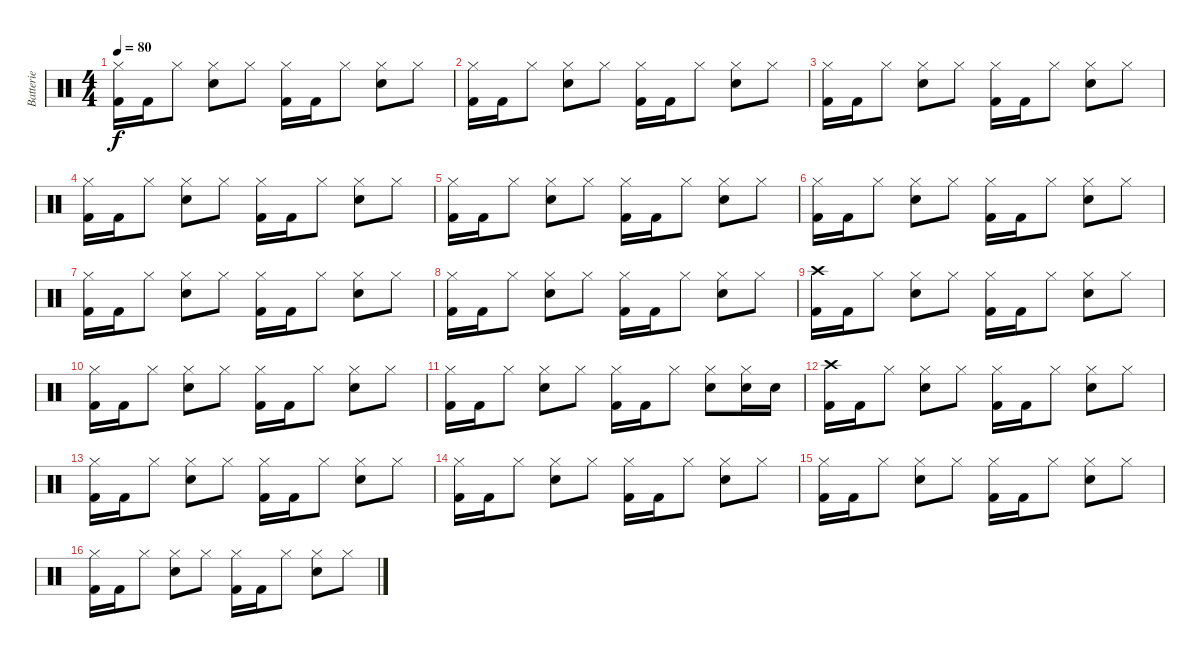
\track ("Batterie" "Batterie") {instrument percussion}
\staff {score}
\articulation defaults
\ts (4 4)
\tempo 80
\clef neutral
\ks c
("Kick (hit) 2" "Hi-Hat (closed)").16{dy f} "Kick (hit) 2".16 "Hi-Hat (closed)".8 ("Snare (hit) 2" "Hi-Hat (closed)").8 "Hi-Hat (closed)".8 ("Kick (hit) 2" "Hi-Hat (closed)").16 "Kick (hit) 2".16 "Hi-Hat (closed)".8 ("Snare (hit) 2" "Hi-Hat (closed)").8 "Hi-Hat (closed)".8 |
("Kick (hit) 2" "Hi-Hat (closed)").16 "Kick (hit) 2".16 "Hi-Hat (closed)".8 ("Snare (hit) 2" "Hi-Hat (closed)").8 "Hi-Hat (closed)".8 ("Kick (hit) 2" "Hi-Hat (closed)").16 "Kick (hit) 2".16 "Hi-Hat (closed)".8 ("Snare (hit) 2" "Hi-Hat (closed)").8 "Hi-Hat (closed)".8 |
("Kick (hit) 2" "Hi-Hat (closed)").16 "Kick (hit) 2".16 "Hi-Hat (closed)".8 ("Snare (hit) 2" "Hi-Hat (closed)").8 "Hi-Hat (closed)".8 ("Kick (hit) 2" "Hi-Hat (closed)").16 "Kick (hit) 2".16 "Hi-Hat (closed)".8 ("Snare (hit) 2" "Hi-Hat (closed)").8 "Hi-Hat (closed)".8 |
("Kick (hit) 2" "Hi-Hat (closed)").16 "Kick (hit) 2".16 "Hi-Hat (closed)".8 ("Snare (hit) 2" "Hi-Hat (closed)").8 "Hi-Hat (closed)".8 ("Kick (hit) 2" "Hi-Hat (closed)").16 "Kick (hit) 2".16 "Hi-Hat (closed)".8 ("Snare (hit) 2" "Hi-Hat (closed)").8 "Hi-Hat (closed)".8 |
("Kick (hit) 2" "Hi-Hat (closed)").16 "Kick (hit) 2".16 "Hi-Hat (closed)".8 ("Snare (hit) 2" "Hi-Hat (closed)").8 "Hi-Hat (closed)".8 ("Kick (hit) 2" "Hi-Hat (closed)").16 "Kick (hit) 2".16 "Hi-Hat (closed)".8 ("Snare (hit) 2" "Hi-Hat (closed)").8 "Hi-Hat (closed)".8 |
("Kick (hit) 2" "Hi-Hat (closed)").16 "Kick (hit) 2".16 "Hi-Hat (closed)".8 ("Snare (hit) 2" "Hi-Hat (closed)").8 "Hi-Hat (closed)".8 ("Kick (hit) 2" "Hi-Hat (closed)").16 "Kick (hit) 2".16 "Hi-Hat (closed)".8 ("Snare (hit) 2" "Hi-Hat (closed)").8 "Hi-Hat (closed)".8 |
("Kick (hit) 2" "Hi-Hat (closed)").16 "Kick (hit) 2".16 "Hi-Hat (closed)".8 ("Snare (hit) 2" "Hi-Hat (closed)").8 "Hi-Hat (closed)".8 ("Kick (hit) 2" "Hi-Hat (closed)").16 "Kick (hit) 2".16 "Hi-Hat (closed)".8 ("Snare (hit) 2" "Hi-Hat (closed)").8 "Hi-Hat (closed)".8 |
("Kick (hit) 2" "Hi-Hat (closed)").16 "Kick (hit) 2".16 "Hi-Hat (closed)".8 ("Snare (hit) 2" "Hi-Hat (closed)").8 "Hi-Hat (closed)".8 ("Kick (hit) 2" "Hi-Hat (closed)").16 "Kick (hit) 2".16 "Hi-Hat (closed)".8 ("Snare (hit) 2" "Hi-Hat (closed)").8 "Hi-Hat (closed)".8 |
("Kick (hit) 2" "Crash high (hit)").16 "Kick (hit) 2".16 "Hi-Hat (closed)".8 ("Snare (hit) 2" "Hi-Hat (closed)").8 "Hi-Hat (closed)".8 ("Kick (hit) 2" "Hi-Hat (closed)").16 "Kick (hit) 2".16 "Hi-Hat (closed)".8 ("Snare (hit) 2" "Hi-Hat (closed)").8 "Hi-Hat (closed)".8 |
("Kick (hit) 2" "Hi-Hat (closed)").16 "Kick (hit) 2".16 "Hi-Hat (closed)".8 ("Snare (hit) 2" "Hi-Hat (closed)").8 "Hi-Hat (closed)".8 ("Kick (hit) 2" "Hi-Hat (closed)").16 "Kick (hit) 2".16 "Hi-Hat (closed)".8 ("Snare (hit) 2" "Hi-Hat (closed)").8 "Hi-Hat (closed)".8 |
("Kick (hit) 2" "Hi-Hat (closed)").16 "Kick (hit) 2".16 "Hi-Hat (closed)".8 ("Snare (hit) 2" "Hi-Hat (closed)").8 "Hi-Hat (closed)".8 ("Kick (hit) 2" "Hi-Hat (closed)").16 "Kick (hit) 2".16 "Hi-Hat (closed)".8 ("Snare (hit) 2" "Hi-Hat (closed)").8 ("Snare (hit) 2" "Hi-Hat (closed)").16 "Snare (hit) 2".16 |
("Kick (hit) 2" "Crash high (hit)").16 "Kick (hit) 2".16 "Hi-Hat (closed)".8 ("Snare (hit) 2" "Hi-Hat (closed)").8 "Hi-Hat (closed)".8 ("Kick (hit) 2" "Hi-Hat (closed)").16 "Kick (hit) 2".16 "Hi-Hat (closed)".8 ("Snare (hit) 2" "Hi-Hat (closed)").8 "Hi-Hat (closed)".8 |
("Kick (hit) 2" "Hi-Hat (closed)").16 "Kick (hit) 2".16 "Hi-Hat (closed)".8 ("Snare (hit) 2" "Hi-Hat (closed)").8 "Hi-Hat (closed)".8 ("Kick (hit) 2" "Hi-Hat (closed)").16 "Kick (hit) 2".16 "Hi-Hat (closed)".8 ("Snare (hit) 2" "Hi-Hat (closed)").8 "Hi-Hat (closed)".8 |
("Kick (hit) 2" "Hi-Hat (closed)").16 "Kick (hit) 2".16 "Hi-Hat (closed)".8 ("Snare (hit) 2" "Hi-Hat (closed)").8 "Hi-Hat (closed)".8 ("Kick (hit) 2" "Hi-Hat (closed)").16 "Kick (hit) 2".16 "Hi-Hat (closed)".8 ("Snare (hit) 2" "Hi-Hat (closed)").8 "Hi-Hat (closed)".8 |
("Kick (hit) 2" "Hi-Hat (closed)").16 "Kick (hit) 2".16 "Hi-Hat (closed)".8 ("Snare (hit) 2" "Hi-Hat (closed)").8 "Hi-Hat (closed)".8 ("Kick (hit) 2" "Hi-Hat (closed)").16 "Kick (hit) 2".16 "Hi-Hat (closed)".8 ("Snare (hit) 2" "Hi-Hat (closed)").8 "Hi-Hat (closed)".8 |
("Kick (hit) 2" "Hi-Hat (closed)").16 "Kick (hit) 2".16 "Hi-Hat (closed)".8 ("Snare (hit) 2" "Hi-Hat (closed)").8 "Hi-Hat (closed)".8 ("Kick (hit) 2" "Hi-Hat (closed)").16 "Kick (hit) 2".16 "Hi-Hat (closed)".8 ("Snare (hit) 2" "Hi-Hat (closed)").8 "Hi-Hat (closed)".8
